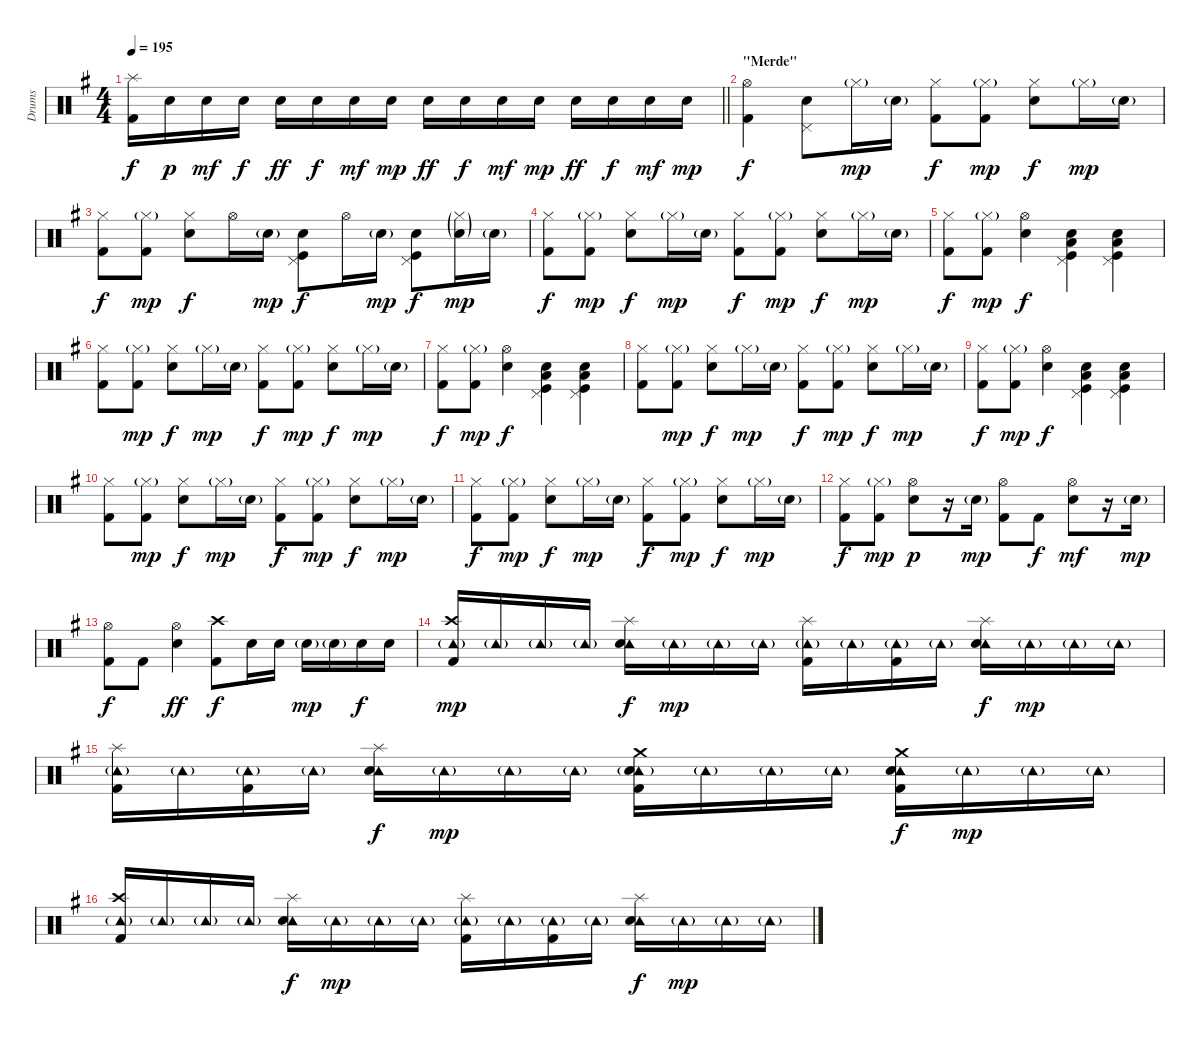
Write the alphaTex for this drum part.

\track ("Drums" "Drums") {instrument percussion}
\staff {score}
\articulation defaults
\ts (4 4)
\tempo 195
\clef neutral
\barLineRight lightlight
\ks g
("Splash (hit)" "Kick (hit) 2").16{dy f} "Electric Snare (hit)".16{dy p} "Electric Snare (hit)".16{dy mf} "Electric Snare (hit)".16{dy f} "Electric Snare (hit)".16{dy ff} "Electric Snare (hit)".16{dy f} "Electric Snare (hit)".16{dy mf} "Electric Snare (hit)".16{dy mp} "Electric Snare (hit)".16{dy ff} "Electric Snare (hit)".16{dy f} "Electric Snare (hit)".16{dy mf} "Electric Snare (hit)".16{dy mp} "Electric Snare (hit)".16{dy ff} "Electric Snare (hit)".16{dy f} "Electric Snare (hit)".16{dy mf} "Electric Snare (hit)".16{dy mp} |
\section ("" "\"Merde\"")
("Hi-Hat (open)" "Kick (hit) 2").4{dy f} ("Pedal Hi-Hat (hit)" "Electric Snare (hit)").8 "Hi-Hat (closed)"{g}.16{dy mp} "Electric Snare (hit)"{g}.16 ("Hi-Hat (closed)" "Kick (hit) 2").8{dy f} ("Hi-Hat (closed)"{g} "Kick (hit) 2").8{dy mp} ("Hi-Hat (closed)" "Electric Snare (hit)").8{dy f} "Hi-Hat (closed)"{g}.16{dy mp} "Electric Snare (hit)"{g}.16 |
("Hi-Hat (closed)" "Kick (hit) 2").8{dy f} ("Hi-Hat (closed)"{g} "Kick (hit) 2").8{dy mp} ("Hi-Hat (closed)" "Electric Snare (hit)").8{dy f} "Hi-Hat (open)".16 "Electric Snare (hit)"{g}.16{dy mp} ("Pedal Hi-Hat (hit)" "Electric Snare (hit)" "Kick (hit)").8{dy f} "Hi-Hat (open)".16 "Electric Snare (hit)"{g}.16{dy mp} ("Pedal Hi-Hat (hit)" "Electric Snare (hit)" "Kick (hit)").8{dy f} ("Hi-Hat (closed)"{g} "Electric Snare (hit)"{g}).16{dy mp} "Electric Snare (hit)"{g}.16 |
("Hi-Hat (closed)" "Kick (hit) 2").8{dy f} ("Hi-Hat (closed)"{g} "Kick (hit) 2").8{dy mp} ("Hi-Hat (closed)" "Electric Snare (hit)").8{dy f} "Hi-Hat (closed)"{g}.16{dy mp} "Electric Snare (hit)"{g}.16 ("Hi-Hat (closed)" "Kick (hit) 2").8{dy f} ("Hi-Hat (closed)"{g} "Kick (hit) 2").8{dy mp} ("Hi-Hat (closed)" "Electric Snare (hit)").8{dy f} "Hi-Hat (closed)"{g}.16{dy mp} "Electric Snare (hit)"{g}.16 |
("Hi-Hat (closed)" "Kick (hit) 2").8{dy f} ("Hi-Hat (closed)"{g} "Kick (hit) 2").8{dy mp} ("Hi-Hat (open)" "Electric Snare (hit)").4{dy f} ("Pedal Hi-Hat (hit)" "Low Floor Tom (hit)" "Electric Snare (hit)" "Kick (hit)").4 ("Pedal Hi-Hat (hit)" "Low Floor Tom (hit)" "Electric Snare (hit)" "Kick (hit)").4 |
("Hi-Hat (closed)" "Kick (hit) 2").8 ("Hi-Hat (closed)"{g} "Kick (hit) 2").8{dy mp} ("Hi-Hat (closed)" "Electric Snare (hit)").8{dy f} "Hi-Hat (closed)"{g}.16{dy mp} "Electric Snare (hit)"{g}.16 ("Hi-Hat (closed)" "Kick (hit) 2").8{dy f} ("Hi-Hat (closed)"{g} "Kick (hit) 2").8{dy mp} ("Hi-Hat (closed)" "Electric Snare (hit)").8{dy f} "Hi-Hat (closed)"{g}.16{dy mp} "Electric Snare (hit)"{g}.16 |
("Hi-Hat (closed)" "Kick (hit) 2").8{dy f} ("Hi-Hat (closed)"{g} "Kick (hit) 2").8{dy mp} ("Hi-Hat (open)" "Electric Snare (hit)").4{dy f} ("Pedal Hi-Hat (hit)" "Low Floor Tom (hit)" "Electric Snare (hit)" "Kick (hit)").4 ("Pedal Hi-Hat (hit)" "Low Floor Tom (hit)" "Electric Snare (hit)" "Kick (hit)").4 |
("Hi-Hat (closed)" "Kick (hit) 2").8 ("Hi-Hat (closed)"{g} "Kick (hit) 2").8{dy mp} ("Hi-Hat (closed)" "Electric Snare (hit)").8{dy f} "Hi-Hat (closed)"{g}.16{dy mp} "Electric Snare (hit)"{g}.16 ("Hi-Hat (closed)" "Kick (hit) 2").8{dy f} ("Hi-Hat (closed)"{g} "Kick (hit) 2").8{dy mp} ("Hi-Hat (closed)" "Electric Snare (hit)").8{dy f} "Hi-Hat (closed)"{g}.16{dy mp} "Electric Snare (hit)"{g}.16 |
("Hi-Hat (closed)" "Kick (hit) 2").8{dy f} ("Hi-Hat (closed)"{g} "Kick (hit) 2").8{dy mp} ("Hi-Hat (open)" "Electric Snare (hit)").4{dy f} ("Pedal Hi-Hat (hit)" "Low Floor Tom (hit)" "Electric Snare (hit)" "Kick (hit)").4 ("Pedal Hi-Hat (hit)" "Low Floor Tom (hit)" "Electric Snare (hit)" "Kick (hit)").4 |
("Hi-Hat (closed)" "Kick (hit) 2").8 ("Hi-Hat (closed)"{g} "Kick (hit) 2").8{dy mp} ("Hi-Hat (closed)" "Electric Snare (hit)").8{dy f} "Hi-Hat (closed)"{g}.16{dy mp} "Electric Snare (hit)"{g}.16 ("Hi-Hat (closed)" "Kick (hit) 2").8{dy f} ("Hi-Hat (closed)"{g} "Kick (hit) 2").8{dy mp} ("Hi-Hat (closed)" "Electric Snare (hit)").8{dy f} "Hi-Hat (closed)"{g}.16{dy mp} "Electric Snare (hit)"{g}.16 |
("Hi-Hat (closed)" "Kick (hit) 2").8{dy f} ("Hi-Hat (closed)"{g} "Kick (hit) 2").8{dy mp} ("Hi-Hat (closed)" "Electric Snare (hit)").8{dy f} "Hi-Hat (closed)"{g}.16{dy mp} "Electric Snare (hit)"{g}.16 ("Hi-Hat (closed)" "Kick (hit) 2").8{dy f} ("Hi-Hat (closed)"{g} "Kick (hit) 2").8{dy mp} ("Hi-Hat (closed)" "Electric Snare (hit)").8{dy f} "Hi-Hat (closed)"{g}.16{dy mp} "Electric Snare (hit)"{g}.16 |
("Hi-Hat (closed)" "Kick (hit) 2").8{dy f} ("Hi-Hat (closed)"{g} "Kick (hit) 2").8{dy mp} ("Hi-Hat (open)" "Electric Snare (hit)").8{dy p} r.16 "Electric Snare (hit)"{g}.16{dy mp} ("Hi-Hat (open)" "Kick (hit) 2").8 "Kick (hit) 2".8{dy f} ("Hi-Hat (open)" "Electric Snare (hit)").8{dy mf} r.16 "Electric Snare (hit)"{g}.16{dy mp} |
("Hi-Hat (open)" "Kick (hit) 2").8{dy f} "Kick (hit) 2".8 ("Hi-Hat (open)" "Electric Snare (hit)").4{dy ff} ("Crash high (hit)" "Kick (hit) 2").8{dy f} "Electric Snare (hit)".16 "Electric Snare (hit)".16 "Electric Snare (hit)"{g}.16{dy mp} "Electric Snare (hit)"{g}.16 "Electric Snare (hit)".16{dy f} "Electric Snare (hit)".16 |
("Crash high (hit)" "Tambourine (hit)"{g} "Kick (hit) 2").16{dy mp} "Tambourine (hit)"{g}.16 "Tambourine (hit)"{g}.16 "Tambourine (hit)"{g}.16 ("Splash (hit)" "Tambourine (hit)" "Electric Snare (hit)").16{dy f} "Tambourine (hit)"{g}.16{dy mp} "Tambourine (hit)"{g}.16 "Tambourine (hit)"{g}.16 ("Splash (hit)" "Tambourine (hit)"{g} "Kick (hit) 2").16 "Tambourine (hit)"{g}.16 ("Tambourine (hit)"{g} "Kick (hit) 2").16 "Tambourine (hit)"{g}.16 ("Splash (hit)" "Tambourine (hit)" "Electric Snare (hit)").16{dy f} "Tambourine (hit)"{g}.16{dy mp} "Tambourine (hit)"{g}.16 "Tambourine (hit)"{g}.16 |
("Splash (hit)" "Tambourine (hit)"{g} "Kick (hit) 2").16 "Tambourine (hit)"{g}.16 ("Tambourine (hit)"{g} "Kick (hit) 2").16 "Tambourine (hit)"{g}.16 ("Splash (hit)" "Tambourine (hit)" "Electric Snare (hit)").16{dy f} "Tambourine (hit)"{g}.16{dy mp} "Tambourine (hit)"{g}.16 "Tambourine (hit)"{g}.16 ("Crash medium (hit)" "Tambourine (hit)"{g} "Electric Snare (hit)" "Kick (hit) 2").16 "Tambourine (hit)"{g}.16 "Tambourine (hit)"{g}.16 "Tambourine (hit)"{g}.16 ("Crash medium (hit)" "Tambourine (hit)" "Electric Snare (hit)" "Kick (hit) 2").16{dy f} "Tambourine (hit)"{g}.16{dy mp} "Tambourine (hit)"{g}.16 "Tambourine (hit)"{g}.16 |
("Crash high (hit)" "Tambourine (hit)"{g} "Kick (hit) 2").16 "Tambourine (hit)"{g}.16 "Tambourine (hit)"{g}.16 "Tambourine (hit)"{g}.16 ("Splash (hit)" "Tambourine (hit)" "Electric Snare (hit)").16{dy f} "Tambourine (hit)"{g}.16{dy mp} "Tambourine (hit)"{g}.16 "Tambourine (hit)"{g}.16 ("Splash (hit)" "Tambourine (hit)"{g} "Kick (hit) 2").16 "Tambourine (hit)"{g}.16 ("Tambourine (hit)"{g} "Kick (hit) 2").16 "Tambourine (hit)"{g}.16 ("Splash (hit)" "Tambourine (hit)" "Electric Snare (hit)").16{dy f} "Tambourine (hit)"{g}.16{dy mp} "Tambourine (hit)"{g}.16 "Tambourine (hit)"{g}.16
